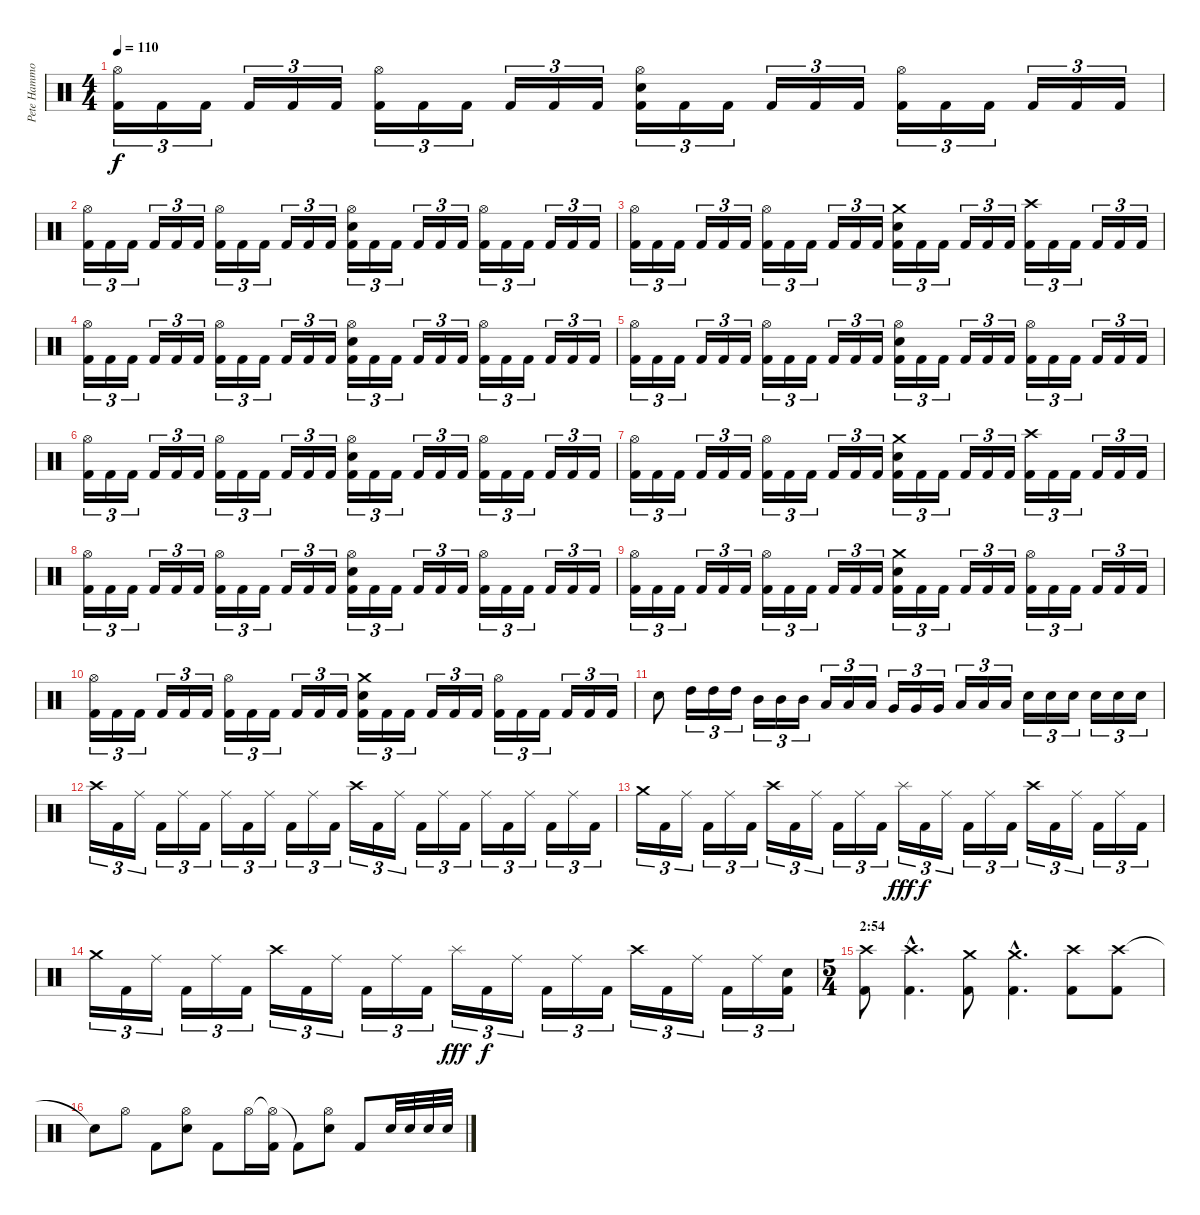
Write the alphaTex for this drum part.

\track ("Pete Hammoura" "Pete Hammo") {instrument percussion}
\staff {score}
\articulation defaults
\ts (4 4)
\tempo 110
\clef neutral
\ks c
("Hi-Hat (open)" "Kick (hit) 2").16{tu (3 2) dy f} "Kick (hit) 2".16{tu (3 2)} "Kick (hit) 2".16{tu (3 2)} "Kick (hit) 2".16{tu (3 2)} "Kick (hit) 2".16{tu (3 2)} "Kick (hit) 2".16{tu (3 2)} ("Hi-Hat (open)" "Kick (hit) 2").16{tu (3 2)} "Kick (hit) 2".16{tu (3 2)} "Kick (hit) 2".16{tu (3 2)} "Kick (hit) 2".16{tu (3 2)} "Kick (hit) 2".16{tu (3 2)} "Kick (hit) 2".16{tu (3 2)} ("Hi-Hat (open)" "Electric Snare (hit)" "Kick (hit) 2").16{tu (3 2)} "Kick (hit) 2".16{tu (3 2)} "Kick (hit) 2".16{tu (3 2)} "Kick (hit) 2".16{tu (3 2)} "Kick (hit) 2".16{tu (3 2)} "Kick (hit) 2".16{tu (3 2)} ("Hi-Hat (open)" "Kick (hit) 2").16{tu (3 2)} "Kick (hit) 2".16{tu (3 2)} "Kick (hit) 2".16{tu (3 2)} "Kick (hit) 2".16{tu (3 2)} "Kick (hit) 2".16{tu (3 2)} "Kick (hit) 2".16{tu (3 2)} |
("Hi-Hat (open)" "Kick (hit) 2").16{tu (3 2)} "Kick (hit) 2".16{tu (3 2)} "Kick (hit) 2".16{tu (3 2)} "Kick (hit) 2".16{tu (3 2)} "Kick (hit) 2".16{tu (3 2)} "Kick (hit) 2".16{tu (3 2)} ("Hi-Hat (open)" "Kick (hit) 2").16{tu (3 2)} "Kick (hit) 2".16{tu (3 2)} "Kick (hit) 2".16{tu (3 2)} "Kick (hit) 2".16{tu (3 2)} "Kick (hit) 2".16{tu (3 2)} "Kick (hit) 2".16{tu (3 2)} ("Hi-Hat (open)" "Electric Snare (hit)" "Kick (hit) 2").16{tu (3 2)} "Kick (hit) 2".16{tu (3 2)} "Kick (hit) 2".16{tu (3 2)} "Kick (hit) 2".16{tu (3 2)} "Kick (hit) 2".16{tu (3 2)} "Kick (hit) 2".16{tu (3 2)} ("Hi-Hat (open)" "Kick (hit) 2").16{tu (3 2)} "Kick (hit) 2".16{tu (3 2)} "Kick (hit) 2".16{tu (3 2)} "Kick (hit) 2".16{tu (3 2)} "Kick (hit) 2".16{tu (3 2)} "Kick (hit) 2".16{tu (3 2)} |
("Hi-Hat (open)" "Kick (hit) 2").16{tu (3 2)} "Kick (hit) 2".16{tu (3 2)} "Kick (hit) 2".16{tu (3 2)} "Kick (hit) 2".16{tu (3 2)} "Kick (hit) 2".16{tu (3 2)} "Kick (hit) 2".16{tu (3 2)} ("Hi-Hat (open)" "Kick (hit) 2").16{tu (3 2)} "Kick (hit) 2".16{tu (3 2)} "Kick (hit) 2".16{tu (3 2)} "Kick (hit) 2".16{tu (3 2)} "Kick (hit) 2".16{tu (3 2)} "Kick (hit) 2".16{tu (3 2)} ("Crash medium (hit)" "Electric Snare (hit)" "Kick (hit) 2").16{tu (3 2)} "Kick (hit) 2".16{tu (3 2)} "Kick (hit) 2".16{tu (3 2)} "Kick (hit) 2".16{tu (3 2)} "Kick (hit) 2".16{tu (3 2)} "Kick (hit) 2".16{tu (3 2)} ("Crash high (hit)" "Kick (hit) 2").16{tu (3 2)} "Kick (hit) 2".16{tu (3 2)} "Kick (hit) 2".16{tu (3 2)} "Kick (hit) 2".16{tu (3 2)} "Kick (hit) 2".16{tu (3 2)} "Kick (hit) 2".16{tu (3 2)} |
("Hi-Hat (open)" "Kick (hit) 2").16{tu (3 2)} "Kick (hit) 2".16{tu (3 2)} "Kick (hit) 2".16{tu (3 2)} "Kick (hit) 2".16{tu (3 2)} "Kick (hit) 2".16{tu (3 2)} "Kick (hit) 2".16{tu (3 2)} ("Hi-Hat (open)" "Kick (hit) 2").16{tu (3 2)} "Kick (hit) 2".16{tu (3 2)} "Kick (hit) 2".16{tu (3 2)} "Kick (hit) 2".16{tu (3 2)} "Kick (hit) 2".16{tu (3 2)} "Kick (hit) 2".16{tu (3 2)} ("Hi-Hat (open)" "Electric Snare (hit)" "Kick (hit) 2").16{tu (3 2)} "Kick (hit) 2".16{tu (3 2)} "Kick (hit) 2".16{tu (3 2)} "Kick (hit) 2".16{tu (3 2)} "Kick (hit) 2".16{tu (3 2)} "Kick (hit) 2".16{tu (3 2)} ("Hi-Hat (open)" "Kick (hit) 2").16{tu (3 2)} "Kick (hit) 2".16{tu (3 2)} "Kick (hit) 2".16{tu (3 2)} "Kick (hit) 2".16{tu (3 2)} "Kick (hit) 2".16{tu (3 2)} "Kick (hit) 2".16{tu (3 2)} |
("Hi-Hat (open)" "Kick (hit) 2").16{tu (3 2)} "Kick (hit) 2".16{tu (3 2)} "Kick (hit) 2".16{tu (3 2)} "Kick (hit) 2".16{tu (3 2)} "Kick (hit) 2".16{tu (3 2)} "Kick (hit) 2".16{tu (3 2)} ("Hi-Hat (open)" "Kick (hit) 2").16{tu (3 2)} "Kick (hit) 2".16{tu (3 2)} "Kick (hit) 2".16{tu (3 2)} "Kick (hit) 2".16{tu (3 2)} "Kick (hit) 2".16{tu (3 2)} "Kick (hit) 2".16{tu (3 2)} ("Hi-Hat (open)" "Electric Snare (hit)" "Kick (hit) 2").16{tu (3 2)} "Kick (hit) 2".16{tu (3 2)} "Kick (hit) 2".16{tu (3 2)} "Kick (hit) 2".16{tu (3 2)} "Kick (hit) 2".16{tu (3 2)} "Kick (hit) 2".16{tu (3 2)} ("Hi-Hat (open)" "Kick (hit) 2").16{tu (3 2)} "Kick (hit) 2".16{tu (3 2)} "Kick (hit) 2".16{tu (3 2)} "Kick (hit) 2".16{tu (3 2)} "Kick (hit) 2".16{tu (3 2)} "Kick (hit) 2".16{tu (3 2)} |
("Hi-Hat (open)" "Kick (hit) 2").16{tu (3 2)} "Kick (hit) 2".16{tu (3 2)} "Kick (hit) 2".16{tu (3 2)} "Kick (hit) 2".16{tu (3 2)} "Kick (hit) 2".16{tu (3 2)} "Kick (hit) 2".16{tu (3 2)} ("Hi-Hat (open)" "Kick (hit) 2").16{tu (3 2)} "Kick (hit) 2".16{tu (3 2)} "Kick (hit) 2".16{tu (3 2)} "Kick (hit) 2".16{tu (3 2)} "Kick (hit) 2".16{tu (3 2)} "Kick (hit) 2".16{tu (3 2)} ("Hi-Hat (open)" "Electric Snare (hit)" "Kick (hit) 2").16{tu (3 2)} "Kick (hit) 2".16{tu (3 2)} "Kick (hit) 2".16{tu (3 2)} "Kick (hit) 2".16{tu (3 2)} "Kick (hit) 2".16{tu (3 2)} "Kick (hit) 2".16{tu (3 2)} ("Hi-Hat (open)" "Kick (hit) 2").16{tu (3 2)} "Kick (hit) 2".16{tu (3 2)} "Kick (hit) 2".16{tu (3 2)} "Kick (hit) 2".16{tu (3 2)} "Kick (hit) 2".16{tu (3 2)} "Kick (hit) 2".16{tu (3 2)} |
("Hi-Hat (open)" "Kick (hit) 2").16{tu (3 2)} "Kick (hit) 2".16{tu (3 2)} "Kick (hit) 2".16{tu (3 2)} "Kick (hit) 2".16{tu (3 2)} "Kick (hit) 2".16{tu (3 2)} "Kick (hit) 2".16{tu (3 2)} ("Hi-Hat (open)" "Kick (hit) 2").16{tu (3 2)} "Kick (hit) 2".16{tu (3 2)} "Kick (hit) 2".16{tu (3 2)} "Kick (hit) 2".16{tu (3 2)} "Kick (hit) 2".16{tu (3 2)} "Kick (hit) 2".16{tu (3 2)} ("Crash medium (hit)" "Electric Snare (hit)" "Kick (hit) 2").16{tu (3 2)} "Kick (hit) 2".16{tu (3 2)} "Kick (hit) 2".16{tu (3 2)} "Kick (hit) 2".16{tu (3 2)} "Kick (hit) 2".16{tu (3 2)} "Kick (hit) 2".16{tu (3 2)} ("Crash high (hit)" "Kick (hit) 2").16{tu (3 2)} "Kick (hit) 2".16{tu (3 2)} "Kick (hit) 2".16{tu (3 2)} "Kick (hit) 2".16{tu (3 2)} "Kick (hit) 2".16{tu (3 2)} "Kick (hit) 2".16{tu (3 2)} |
("Hi-Hat (open)" "Kick (hit) 2").16{tu (3 2)} "Kick (hit) 2".16{tu (3 2)} "Kick (hit) 2".16{tu (3 2)} "Kick (hit) 2".16{tu (3 2)} "Kick (hit) 2".16{tu (3 2)} "Kick (hit) 2".16{tu (3 2)} ("Hi-Hat (open)" "Kick (hit) 2").16{tu (3 2)} "Kick (hit) 2".16{tu (3 2)} "Kick (hit) 2".16{tu (3 2)} "Kick (hit) 2".16{tu (3 2)} "Kick (hit) 2".16{tu (3 2)} "Kick (hit) 2".16{tu (3 2)} ("Hi-Hat (open)" "Electric Snare (hit)" "Kick (hit) 2").16{tu (3 2)} "Kick (hit) 2".16{tu (3 2)} "Kick (hit) 2".16{tu (3 2)} "Kick (hit) 2".16{tu (3 2)} "Kick (hit) 2".16{tu (3 2)} "Kick (hit) 2".16{tu (3 2)} ("Hi-Hat (open)" "Kick (hit) 2").16{tu (3 2)} "Kick (hit) 2".16{tu (3 2)} "Kick (hit) 2".16{tu (3 2)} "Kick (hit) 2".16{tu (3 2)} "Kick (hit) 2".16{tu (3 2)} "Kick (hit) 2".16{tu (3 2)} |
("Hi-Hat (open)" "Kick (hit) 2").16{tu (3 2)} "Kick (hit) 2".16{tu (3 2)} "Kick (hit) 2".16{tu (3 2)} "Kick (hit) 2".16{tu (3 2)} "Kick (hit) 2".16{tu (3 2)} "Kick (hit) 2".16{tu (3 2)} ("Hi-Hat (open)" "Kick (hit) 2").16{tu (3 2)} "Kick (hit) 2".16{tu (3 2)} "Kick (hit) 2".16{tu (3 2)} "Kick (hit) 2".16{tu (3 2)} "Kick (hit) 2".16{tu (3 2)} "Kick (hit) 2".16{tu (3 2)} ("Crash medium (hit)" "Electric Snare (hit)" "Kick (hit) 2").16{tu (3 2)} "Kick (hit) 2".16{tu (3 2)} "Kick (hit) 2".16{tu (3 2)} "Kick (hit) 2".16{tu (3 2)} "Kick (hit) 2".16{tu (3 2)} "Kick (hit) 2".16{tu (3 2)} ("Hi-Hat (open)" "Kick (hit) 2").16{tu (3 2)} "Kick (hit) 2".16{tu (3 2)} "Kick (hit) 2".16{tu (3 2)} "Kick (hit) 2".16{tu (3 2)} "Kick (hit) 2".16{tu (3 2)} "Kick (hit) 2".16{tu (3 2)} |
("Hi-Hat (open)" "Kick (hit) 2").16{tu (3 2)} "Kick (hit) 2".16{tu (3 2)} "Kick (hit) 2".16{tu (3 2)} "Kick (hit) 2".16{tu (3 2)} "Kick (hit) 2".16{tu (3 2)} "Kick (hit) 2".16{tu (3 2)} ("Hi-Hat (open)" "Kick (hit) 2").16{tu (3 2)} "Kick (hit) 2".16{tu (3 2)} "Kick (hit) 2".16{tu (3 2)} "Kick (hit) 2".16{tu (3 2)} "Kick (hit) 2".16{tu (3 2)} "Kick (hit) 2".16{tu (3 2)} ("Crash medium (hit)" "Electric Snare (hit)" "Kick (hit) 2").16{tu (3 2)} "Kick (hit) 2".16{tu (3 2)} "Kick (hit) 2".16{tu (3 2)} "Kick (hit) 2".16{tu (3 2)} "Kick (hit) 2".16{tu (3 2)} "Kick (hit) 2".16{tu (3 2)} ("Hi-Hat (open)" "Kick (hit) 2").16{tu (3 2)} "Kick (hit) 2".16{tu (3 2)} "Kick (hit) 2".16{tu (3 2)} "Kick (hit) 2".16{tu (3 2)} "Kick (hit) 2".16{tu (3 2)} "Kick (hit) 2".16{tu (3 2)} |
"Electric Snare (hit)".8 "High Tom (hit)".16{tu (3 2)} "High Tom (hit)".16{tu (3 2)} "High Tom (hit)".16{tu (3 2)} "Mid Tom (hit)".16{tu (3 2)} "Mid Tom (hit)".16{tu (3 2)} "Mid Tom (hit)".16{tu (3 2)} "Low Tom (hit)".16{tu (3 2)} "Low Tom (hit)".16{tu (3 2)} "Low Tom (hit)".16{tu (3 2)} "Very Low Tom (hit)".16{tu (3 2)} "Very Low Tom (hit)".16{tu (3 2)} "Very Low Tom (hit)".16{tu (3 2)} "Low Floor Tom (hit)".16{tu (3 2)} "Low Floor Tom (hit)".16{tu (3 2)} "Low Floor Tom (hit)".16{tu (3 2)} "Electric Snare (hit)".16{tu (3 2)} "Electric Snare (hit)".16{tu (3 2)} "Electric Snare (hit)".16{tu (3 2)} "Electric Snare (hit)".16{tu (3 2)} "Electric Snare (hit)".16{tu (3 2)} "Electric Snare (hit)".16{tu (3 2)} |
"Crash high (hit)".16{tu (3 2)} "Kick (hit) 2".16{tu (3 2)} "Ride (middle)".16{tu (3 2)} "Kick (hit) 2".16{tu (3 2)} "Ride (middle)".16{tu (3 2)} "Kick (hit) 2".16{tu (3 2)} "Ride (middle)".16{tu (3 2)} "Kick (hit) 2".16{tu (3 2)} "Ride (middle)".16{tu (3 2)} "Kick (hit) 2".16{tu (3 2)} "Ride (middle)".16{tu (3 2)} "Kick (hit) 2".16{tu (3 2)} "Crash high (hit)".16{tu (3 2)} "Kick (hit) 2".16{tu (3 2)} "Ride (middle)".16{tu (3 2)} "Kick (hit) 2".16{tu (3 2)} "Ride (middle)".16{tu (3 2)} "Kick (hit) 2".16{tu (3 2)} "Ride (middle)".16{tu (3 2)} "Kick (hit) 2".16{tu (3 2)} "Ride (middle)".16{tu (3 2)} "Kick (hit) 2".16{tu (3 2)} "Ride (middle)".16{tu (3 2)} "Kick (hit) 2".16{tu (3 2)} |
"Crash medium (hit)".16{tu (3 2)} "Kick (hit) 2".16{tu (3 2)} "Ride (middle)".16{tu (3 2)} "Kick (hit) 2".16{tu (3 2)} "Ride (middle)".16{tu (3 2)} "Kick (hit) 2".16{tu (3 2)} "Crash high (hit)".16{tu (3 2)} "Kick (hit) 2".16{tu (3 2)} "Ride (middle)".16{tu (3 2)} "Kick (hit) 2".16{tu (3 2)} "Ride (middle)".16{tu (3 2)} "Kick (hit) 2".16{tu (3 2)} "Splash (hit)".16{tu (3 2) dy fff} "Kick (hit) 2".16{tu (3 2) dy f} "Ride (middle)".16{tu (3 2)} "Kick (hit) 2".16{tu (3 2)} "Ride (middle)".16{tu (3 2)} "Kick (hit) 2".16{tu (3 2)} "Crash high (hit)".16{tu (3 2)} "Kick (hit) 2".16{tu (3 2)} "Ride (middle)".16{tu (3 2)} "Kick (hit) 2".16{tu (3 2)} "Ride (middle)".16{tu (3 2)} "Kick (hit) 2".16{tu (3 2)} |
"Crash medium (hit)".16{tu (3 2)} "Kick (hit) 2".16{tu (3 2)} "Ride (middle)".16{tu (3 2)} "Kick (hit) 2".16{tu (3 2)} "Ride (middle)".16{tu (3 2)} "Kick (hit) 2".16{tu (3 2)} "Crash high (hit)".16{tu (3 2)} "Kick (hit) 2".16{tu (3 2)} "Ride (middle)".16{tu (3 2)} "Kick (hit) 2".16{tu (3 2)} "Ride (middle)".16{tu (3 2)} "Kick (hit) 2".16{tu (3 2)} "Splash (hit)".16{tu (3 2) dy fff} "Kick (hit) 2".16{tu (3 2) dy f} "Ride (middle)".16{tu (3 2)} "Kick (hit) 2".16{tu (3 2)} "Ride (middle)".16{tu (3 2)} "Kick (hit) 2".16{tu (3 2)} "Crash high (hit)".16{tu (3 2)} "Kick (hit) 2".16{tu (3 2)} "Ride (middle)".16{tu (3 2)} "Kick (hit) 2".16{tu (3 2)} "Ride (middle)".16{tu (3 2)} ("Electric Snare (hit)" "Kick (hit) 2").16{tu (3 2)} |
\ts (5 4)
\section ("" "2:54")
("Crash high (hit)" "Kick (hit) 2").8 ("Crash high (hit)"{hac} "Kick (hit) 2"{hac}).4{d} ("Crash medium (hit)" "Kick (hit) 2").8 ("Crash medium (hit)"{hac} "Kick (hit) 2"{hac}).4{d} ("Crash high (hit)" "Kick (hit) 2").8 ("Crash high (hit)" "Kick (hit) 2").8 |
"Snare (hit)"{t}.8 "Hi-Hat (open)".8 "Kick (hit) 2".8 ("Hi-Hat (open)" "Electric Snare (hit)").8 "Kick (hit) 2".8 "Hi-Hat (open)".16 ("Hi-Hat (open)"{t} "Kick (hit) 2").16 "Kick (hit) 2"{t}.8 ("Hi-Hat (open)" "Electric Snare (hit)").8 "Kick (hit) 2".8 "Electric Snare (hit)".32 "Electric Snare (hit)".32 "Electric Snare (hit)".32 "Electric Snare (hit)".32
